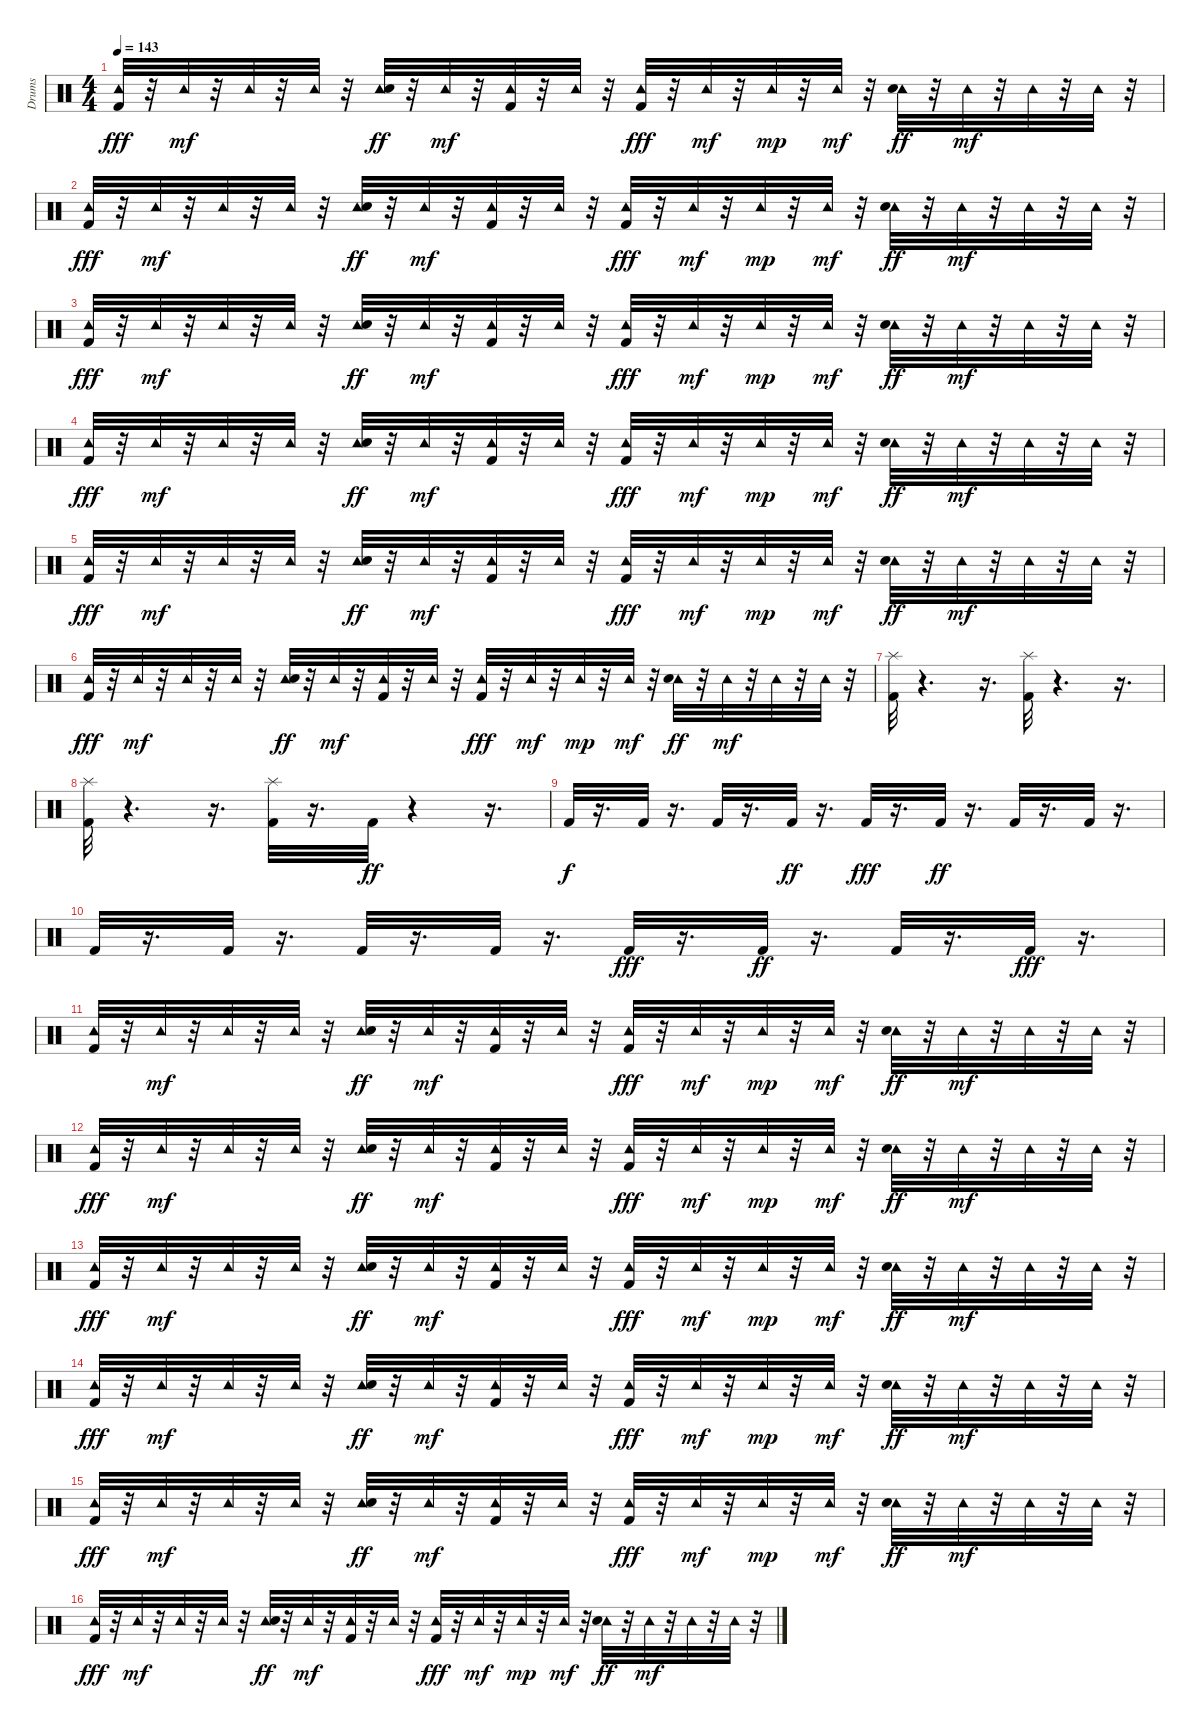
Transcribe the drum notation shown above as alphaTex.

\track ("Drums" "Drums") {instrument percussion}
\staff {score}
\articulation defaults
\ts (4 4)
\tempo 143
\clef neutral
\ks c
("Kick (hit) 2" "Tambourine (hit)").32{dy fff} r.32 "Tambourine (hit)".32{dy mf} r.32 "Tambourine (hit)".32 r.32 "Tambourine (hit)".32 r.32 ("Tambourine (hit)" "Snare (hit) 2").32{dy ff} r.32 "Tambourine (hit)".32{dy mf} r.32 ("Kick (hit) 2" "Tambourine (hit)").32 r.32 "Tambourine (hit)".32 r.32 ("Kick (hit) 2" "Tambourine (hit)").32{dy fff} r.32 "Tambourine (hit)".32{dy mf} r.32 "Tambourine (hit)".32{dy mp} r.32 "Tambourine (hit)".32{dy mf} r.32 ("Tambourine (hit)" "Snare (hit) 2").32{dy ff} r.32 "Tambourine (hit)".32{dy mf} r.32 "Tambourine (hit)".32 r.32 "Tambourine (hit)".32 r.32 |
("Kick (hit) 2" "Tambourine (hit)").32{dy fff} r.32 "Tambourine (hit)".32{dy mf} r.32 "Tambourine (hit)".32 r.32 "Tambourine (hit)".32 r.32 ("Tambourine (hit)" "Snare (hit) 2").32{dy ff} r.32 "Tambourine (hit)".32{dy mf} r.32 ("Kick (hit) 2" "Tambourine (hit)").32 r.32 "Tambourine (hit)".32 r.32 ("Kick (hit) 2" "Tambourine (hit)").32{dy fff} r.32 "Tambourine (hit)".32{dy mf} r.32 "Tambourine (hit)".32{dy mp} r.32 "Tambourine (hit)".32{dy mf} r.32 ("Tambourine (hit)" "Snare (hit) 2").32{dy ff} r.32 "Tambourine (hit)".32{dy mf} r.32 "Tambourine (hit)".32 r.32 "Tambourine (hit)".32 r.32 |
("Kick (hit) 2" "Tambourine (hit)").32{dy fff} r.32 "Tambourine (hit)".32{dy mf} r.32 "Tambourine (hit)".32 r.32 "Tambourine (hit)".32 r.32 ("Tambourine (hit)" "Snare (hit) 2").32{dy ff} r.32 "Tambourine (hit)".32{dy mf} r.32 ("Kick (hit) 2" "Tambourine (hit)").32 r.32 "Tambourine (hit)".32 r.32 ("Kick (hit) 2" "Tambourine (hit)").32{dy fff} r.32 "Tambourine (hit)".32{dy mf} r.32 "Tambourine (hit)".32{dy mp} r.32 "Tambourine (hit)".32{dy mf} r.32 ("Tambourine (hit)" "Snare (hit) 2").32{dy ff} r.32 "Tambourine (hit)".32{dy mf} r.32 "Tambourine (hit)".32 r.32 "Tambourine (hit)".32 r.32 |
("Kick (hit) 2" "Tambourine (hit)").32{dy fff} r.32 "Tambourine (hit)".32{dy mf} r.32 "Tambourine (hit)".32 r.32 "Tambourine (hit)".32 r.32 ("Tambourine (hit)" "Snare (hit) 2").32{dy ff} r.32 "Tambourine (hit)".32{dy mf} r.32 ("Kick (hit) 2" "Tambourine (hit)").32 r.32 "Tambourine (hit)".32 r.32 ("Kick (hit) 2" "Tambourine (hit)").32{dy fff} r.32 "Tambourine (hit)".32{dy mf} r.32 "Tambourine (hit)".32{dy mp} r.32 "Tambourine (hit)".32{dy mf} r.32 ("Tambourine (hit)" "Snare (hit) 2").32{dy ff} r.32 "Tambourine (hit)".32{dy mf} r.32 "Tambourine (hit)".32 r.32 "Tambourine (hit)".32 r.32 |
("Kick (hit) 2" "Tambourine (hit)").32{dy fff} r.32 "Tambourine (hit)".32{dy mf} r.32 "Tambourine (hit)".32 r.32 "Tambourine (hit)".32 r.32 ("Tambourine (hit)" "Snare (hit) 2").32{dy ff} r.32 "Tambourine (hit)".32{dy mf} r.32 ("Kick (hit) 2" "Tambourine (hit)").32 r.32 "Tambourine (hit)".32 r.32 ("Kick (hit) 2" "Tambourine (hit)").32{dy fff} r.32 "Tambourine (hit)".32{dy mf} r.32 "Tambourine (hit)".32{dy mp} r.32 "Tambourine (hit)".32{dy mf} r.32 ("Tambourine (hit)" "Snare (hit) 2").32{dy ff} r.32 "Tambourine (hit)".32{dy mf} r.32 "Tambourine (hit)".32 r.32 "Tambourine (hit)".32 r.32 |
("Kick (hit) 2" "Tambourine (hit)").32{dy fff} r.32 "Tambourine (hit)".32{dy mf} r.32 "Tambourine (hit)".32 r.32 "Tambourine (hit)".32 r.32 ("Tambourine (hit)" "Snare (hit) 2").32{dy ff} r.32 "Tambourine (hit)".32{dy mf} r.32 ("Kick (hit) 2" "Tambourine (hit)").32 r.32 "Tambourine (hit)".32 r.32 ("Kick (hit) 2" "Tambourine (hit)").32{dy fff} r.32 "Tambourine (hit)".32{dy mf} r.32 "Tambourine (hit)".32{dy mp} r.32 "Tambourine (hit)".32{dy mf} r.32 ("Tambourine (hit)" "Snare (hit) 2").32{dy ff} r.32 "Tambourine (hit)".32{dy mf} r.32 "Tambourine (hit)".32 r.32 "Tambourine (hit)".32 r.32 |
("Splash (hit)" "Kick (hit) 2").32 r.4{d} r.16{d} ("Splash (hit)" "Kick (hit) 2").32 r.4{d} r.16{d} |
("Splash (hit)" "Kick (hit) 2").32 r.4{d} r.16{d} ("Splash (hit)" "Kick (hit) 2").32 r.16{d} "Kick (hit) 2".32{dy ff} r.4 r.16{d} |
"Kick (hit) 2".32{dy f} r.16{d} "Kick (hit) 2".32 r.16{d} "Kick (hit) 2".32 r.16{d} "Kick (hit) 2".32{dy ff} r.16{d} "Kick (hit) 2".32{dy fff} r.16{d} "Kick (hit) 2".32{dy ff} r.16{d} "Kick (hit) 2".32 r.16{d} "Kick (hit) 2".32 r.16{d} |
"Kick (hit) 2".32 r.16{d} "Kick (hit) 2".32 r.16{d} "Kick (hit) 2".32 r.16{d} "Kick (hit) 2".32 r.16{d} "Kick (hit) 2".32{dy fff} r.16{d} "Kick (hit) 2".32{dy ff} r.16{d} "Kick (hit) 2".32 r.16{d} "Kick (hit) 2".32{dy fff} r.16{d} |
("Kick (hit) 2" "Tambourine (hit)").32 r.32 "Tambourine (hit)".32{dy mf} r.32 "Tambourine (hit)".32 r.32 "Tambourine (hit)".32 r.32 ("Tambourine (hit)" "Snare (hit) 2").32{dy ff} r.32 "Tambourine (hit)".32{dy mf} r.32 ("Kick (hit) 2" "Tambourine (hit)").32 r.32 "Tambourine (hit)".32 r.32 ("Kick (hit) 2" "Tambourine (hit)").32{dy fff} r.32 "Tambourine (hit)".32{dy mf} r.32 "Tambourine (hit)".32{dy mp} r.32 "Tambourine (hit)".32{dy mf} r.32 ("Tambourine (hit)" "Snare (hit) 2").32{dy ff} r.32 "Tambourine (hit)".32{dy mf} r.32 "Tambourine (hit)".32 r.32 "Tambourine (hit)".32 r.32 |
("Kick (hit) 2" "Tambourine (hit)").32{dy fff} r.32 "Tambourine (hit)".32{dy mf} r.32 "Tambourine (hit)".32 r.32 "Tambourine (hit)".32 r.32 ("Tambourine (hit)" "Snare (hit) 2").32{dy ff} r.32 "Tambourine (hit)".32{dy mf} r.32 ("Kick (hit) 2" "Tambourine (hit)").32 r.32 "Tambourine (hit)".32 r.32 ("Kick (hit) 2" "Tambourine (hit)").32{dy fff} r.32 "Tambourine (hit)".32{dy mf} r.32 "Tambourine (hit)".32{dy mp} r.32 "Tambourine (hit)".32{dy mf} r.32 ("Tambourine (hit)" "Snare (hit) 2").32{dy ff} r.32 "Tambourine (hit)".32{dy mf} r.32 "Tambourine (hit)".32 r.32 "Tambourine (hit)".32 r.32 |
("Kick (hit) 2" "Tambourine (hit)").32{dy fff} r.32 "Tambourine (hit)".32{dy mf} r.32 "Tambourine (hit)".32 r.32 "Tambourine (hit)".32 r.32 ("Tambourine (hit)" "Snare (hit) 2").32{dy ff} r.32 "Tambourine (hit)".32{dy mf} r.32 ("Kick (hit) 2" "Tambourine (hit)").32 r.32 "Tambourine (hit)".32 r.32 ("Kick (hit) 2" "Tambourine (hit)").32{dy fff} r.32 "Tambourine (hit)".32{dy mf} r.32 "Tambourine (hit)".32{dy mp} r.32 "Tambourine (hit)".32{dy mf} r.32 ("Tambourine (hit)" "Snare (hit) 2").32{dy ff} r.32 "Tambourine (hit)".32{dy mf} r.32 "Tambourine (hit)".32 r.32 "Tambourine (hit)".32 r.32 |
("Kick (hit) 2" "Tambourine (hit)").32{dy fff} r.32 "Tambourine (hit)".32{dy mf} r.32 "Tambourine (hit)".32 r.32 "Tambourine (hit)".32 r.32 ("Tambourine (hit)" "Snare (hit) 2").32{dy ff} r.32 "Tambourine (hit)".32{dy mf} r.32 ("Kick (hit) 2" "Tambourine (hit)").32 r.32 "Tambourine (hit)".32 r.32 ("Kick (hit) 2" "Tambourine (hit)").32{dy fff} r.32 "Tambourine (hit)".32{dy mf} r.32 "Tambourine (hit)".32{dy mp} r.32 "Tambourine (hit)".32{dy mf} r.32 ("Tambourine (hit)" "Snare (hit) 2").32{dy ff} r.32 "Tambourine (hit)".32{dy mf} r.32 "Tambourine (hit)".32 r.32 "Tambourine (hit)".32 r.32 |
("Kick (hit) 2" "Tambourine (hit)").32{dy fff} r.32 "Tambourine (hit)".32{dy mf} r.32 "Tambourine (hit)".32 r.32 "Tambourine (hit)".32 r.32 ("Tambourine (hit)" "Snare (hit) 2").32{dy ff} r.32 "Tambourine (hit)".32{dy mf} r.32 ("Kick (hit) 2" "Tambourine (hit)").32 r.32 "Tambourine (hit)".32 r.32 ("Kick (hit) 2" "Tambourine (hit)").32{dy fff} r.32 "Tambourine (hit)".32{dy mf} r.32 "Tambourine (hit)".32{dy mp} r.32 "Tambourine (hit)".32{dy mf} r.32 ("Tambourine (hit)" "Snare (hit) 2").32{dy ff} r.32 "Tambourine (hit)".32{dy mf} r.32 "Tambourine (hit)".32 r.32 "Tambourine (hit)".32 r.32 |
("Kick (hit) 2" "Tambourine (hit)").32{dy fff} r.32 "Tambourine (hit)".32{dy mf} r.32 "Tambourine (hit)".32 r.32 "Tambourine (hit)".32 r.32 ("Tambourine (hit)" "Snare (hit) 2").32{dy ff} r.32 "Tambourine (hit)".32{dy mf} r.32 ("Kick (hit) 2" "Tambourine (hit)").32 r.32 "Tambourine (hit)".32 r.32 ("Kick (hit) 2" "Tambourine (hit)").32{dy fff} r.32 "Tambourine (hit)".32{dy mf} r.32 "Tambourine (hit)".32{dy mp} r.32 "Tambourine (hit)".32{dy mf} r.32 ("Tambourine (hit)" "Snare (hit) 2").32{dy ff} r.32 "Tambourine (hit)".32{dy mf} r.32 "Tambourine (hit)".32 r.32 "Tambourine (hit)".32 r.32
